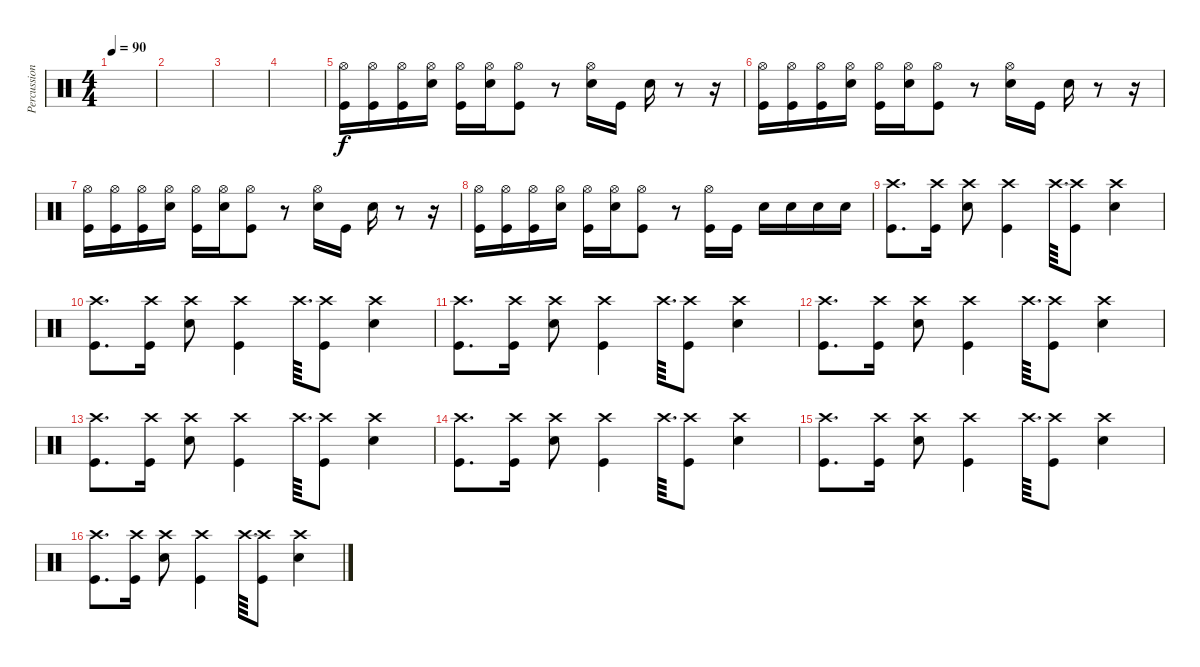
\track ("Percussion courtesy of unknown user" "Percussion") {instrument percussion}
\staff {score}
\articulation defaults
\ts (4 4)
\tempo 90
\clef neutral
\ks c
|
|
|
|
("Hi-Hat (open)" "Kick (hit)").16 ("Hi-Hat (open)" "Kick (hit)").16 ("Hi-Hat (open)" "Kick (hit)").16 ("Hi-Hat (open)" "Snare (hit) 2").16 ("Hi-Hat (open)" "Kick (hit)").16 ("Hi-Hat (open)" "Snare (hit) 2").16 ("Hi-Hat (open)" "Kick (hit)").8 r.8 ("Hi-Hat (open)" "Snare (hit) 2").16 "Kick (hit)".16 "Snare (hit) 2".16 r.8 r.16 |
("Hi-Hat (open)" "Kick (hit)").16 ("Hi-Hat (open)" "Kick (hit)").16 ("Hi-Hat (open)" "Kick (hit)").16 ("Hi-Hat (open)" "Snare (hit) 2").16 ("Hi-Hat (open)" "Kick (hit)").16 ("Hi-Hat (open)" "Snare (hit) 2").16 ("Hi-Hat (open)" "Kick (hit)").8 r.8 ("Hi-Hat (open)" "Snare (hit) 2").16 "Kick (hit)".16 "Snare (hit) 2".16 r.8 r.16 |
("Hi-Hat (open)" "Kick (hit)").16 ("Hi-Hat (open)" "Kick (hit)").16 ("Hi-Hat (open)" "Kick (hit)").16 ("Hi-Hat (open)" "Snare (hit) 2").16 ("Hi-Hat (open)" "Kick (hit)").16 ("Hi-Hat (open)" "Snare (hit) 2").16 ("Hi-Hat (open)" "Kick (hit)").8 r.8 ("Hi-Hat (open)" "Snare (hit) 2").16 "Kick (hit)".16 "Snare (hit) 2".16 r.8 r.16 |
("Hi-Hat (open)" "Kick (hit)").16 ("Hi-Hat (open)" "Kick (hit)").16 ("Hi-Hat (open)" "Kick (hit)").16 ("Hi-Hat (open)" "Snare (hit) 2").16 ("Hi-Hat (open)" "Kick (hit)").16 ("Hi-Hat (open)" "Snare (hit) 2").16 ("Hi-Hat (open)" "Kick (hit)").8 r.8 ("Hi-Hat (open)" "Kick (hit)").16 "Kick (hit)".16 "Snare (hit) 2".16 "Snare (hit) 2".16 "Snare (hit) 2".16 "Snare (hit) 2".16 |
("Crash high (hit)" "Kick (hit)").8{d} ("Crash high (hit)" "Kick (hit)").16 ("Crash high (hit)" "Snare (hit) 2").8 ("Crash high (hit)" "Kick (hit)").4 "Crash high (hit)".64{d} ("Crash high (hit)" "Kick (hit)").8 ("Crash high (hit)" "Snare (hit) 2").4 |
("Crash high (hit)" "Kick (hit)").8{d} ("Crash high (hit)" "Kick (hit)").16 ("Crash high (hit)" "Snare (hit) 2").8 ("Crash high (hit)" "Kick (hit)").4 "Crash high (hit)".64{d} ("Crash high (hit)" "Kick (hit)").8 ("Crash high (hit)" "Snare (hit) 2").4 |
("Crash high (hit)" "Kick (hit)").8{d} ("Crash high (hit)" "Kick (hit)").16 ("Crash high (hit)" "Snare (hit) 2").8 ("Crash high (hit)" "Kick (hit)").4 "Crash high (hit)".64{d} ("Crash high (hit)" "Kick (hit)").8 ("Crash high (hit)" "Snare (hit) 2").4 |
("Crash high (hit)" "Kick (hit)").8{d} ("Crash high (hit)" "Kick (hit)").16 ("Crash high (hit)" "Snare (hit) 2").8 ("Crash high (hit)" "Kick (hit)").4 "Crash high (hit)".64{d} ("Crash high (hit)" "Kick (hit)").8 ("Crash high (hit)" "Snare (hit) 2").4 |
("Crash high (hit)" "Kick (hit)").8{d} ("Crash high (hit)" "Kick (hit)").16 ("Crash high (hit)" "Snare (hit) 2").8 ("Crash high (hit)" "Kick (hit)").4 "Crash high (hit)".64{d} ("Crash high (hit)" "Kick (hit)").8 ("Crash high (hit)" "Snare (hit) 2").4 |
("Crash high (hit)" "Kick (hit)").8{d} ("Crash high (hit)" "Kick (hit)").16 ("Crash high (hit)" "Snare (hit) 2").8 ("Crash high (hit)" "Kick (hit)").4 "Crash high (hit)".64{d} ("Crash high (hit)" "Kick (hit)").8 ("Crash high (hit)" "Snare (hit) 2").4 |
("Crash high (hit)" "Kick (hit)").8{d} ("Crash high (hit)" "Kick (hit)").16 ("Crash high (hit)" "Snare (hit) 2").8 ("Crash high (hit)" "Kick (hit)").4 "Crash high (hit)".64{d} ("Crash high (hit)" "Kick (hit)").8 ("Crash high (hit)" "Snare (hit) 2").4 |
("Crash high (hit)" "Kick (hit)").8{d} ("Crash high (hit)" "Kick (hit)").16 ("Crash high (hit)" "Snare (hit) 2").8 ("Crash high (hit)" "Kick (hit)").4 "Crash high (hit)".64{d} ("Crash high (hit)" "Kick (hit)").8 ("Crash high (hit)" "Snare (hit) 2").4
